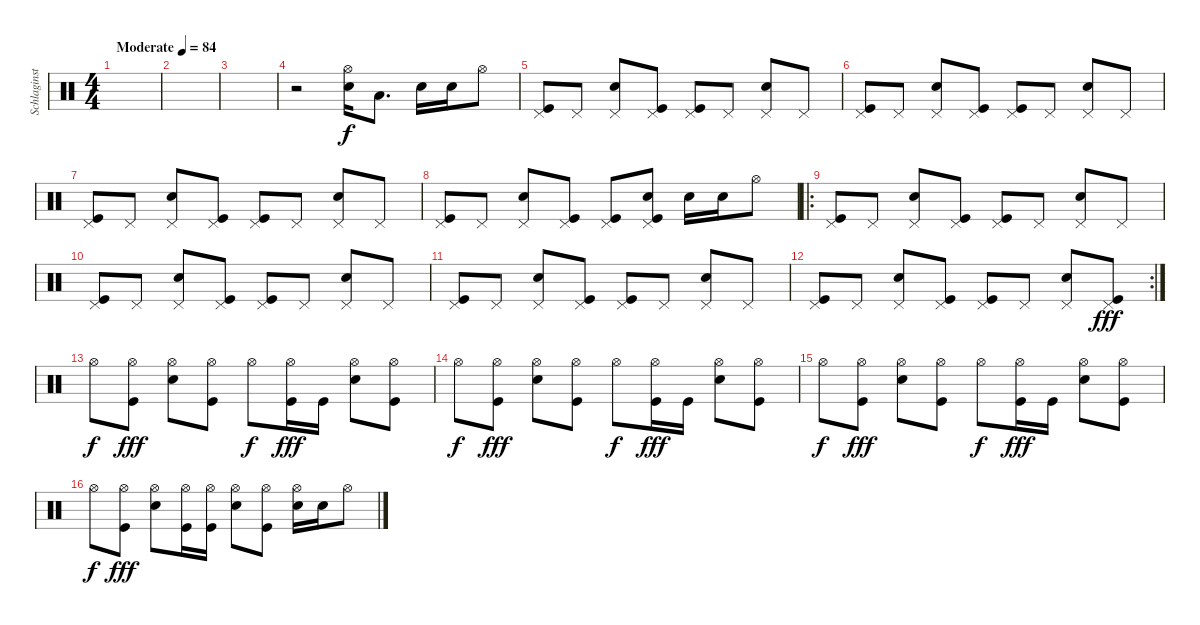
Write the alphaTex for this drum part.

\track ("Schlaginstrumente - Auswahl" "Schlaginst") {instrument percussion}
\staff {score}
\articulation defaults
\ts (4 4)
\tempo (84 "Moderate")
\clef neutral
\ks c
|
|
|
r.2 ("Hi-Hat (open)" "Electric Snare (hit)").16 "Low Floor Tom (hit)".8{d} "Electric Snare (hit)".16 "Electric Snare (hit)".16 "Hi-Hat (open)".8 |
("Pedal Hi-Hat (hit)" "Kick (hit)").8 "Pedal Hi-Hat (hit)".8 ("Pedal Hi-Hat (hit)" "Electric Snare (hit)").8 ("Pedal Hi-Hat (hit)" "Kick (hit)").8 ("Pedal Hi-Hat (hit)" "Kick (hit)").8 "Pedal Hi-Hat (hit)".8 ("Pedal Hi-Hat (hit)" "Electric Snare (hit)").8 "Pedal Hi-Hat (hit)".8 |
("Pedal Hi-Hat (hit)" "Kick (hit)").8 "Pedal Hi-Hat (hit)".8 ("Pedal Hi-Hat (hit)" "Electric Snare (hit)").8 ("Pedal Hi-Hat (hit)" "Kick (hit)").8 ("Pedal Hi-Hat (hit)" "Kick (hit)").8 "Pedal Hi-Hat (hit)".8 ("Pedal Hi-Hat (hit)" "Electric Snare (hit)").8 "Pedal Hi-Hat (hit)".8 |
("Pedal Hi-Hat (hit)" "Kick (hit)").8 "Pedal Hi-Hat (hit)".8 ("Pedal Hi-Hat (hit)" "Electric Snare (hit)").8 ("Pedal Hi-Hat (hit)" "Kick (hit)").8 ("Pedal Hi-Hat (hit)" "Kick (hit)").8 "Pedal Hi-Hat (hit)".8 ("Pedal Hi-Hat (hit)" "Electric Snare (hit)").8 "Pedal Hi-Hat (hit)".8 |
("Pedal Hi-Hat (hit)" "Kick (hit)").8 "Pedal Hi-Hat (hit)".8 ("Pedal Hi-Hat (hit)" "Electric Snare (hit)").8 ("Pedal Hi-Hat (hit)" "Kick (hit)").8 ("Pedal Hi-Hat (hit)" "Kick (hit)").8 ("Electric Snare (hit)" "Kick (hit)" "Pedal Hi-Hat (hit)").8 "Electric Snare (hit)".16 "Electric Snare (hit)".16 "Hi-Hat (open)".8 |
\ro
("Pedal Hi-Hat (hit)" "Kick (hit)").8 "Pedal Hi-Hat (hit)".8 ("Pedal Hi-Hat (hit)" "Electric Snare (hit)").8 ("Pedal Hi-Hat (hit)" "Kick (hit)").8 ("Pedal Hi-Hat (hit)" "Kick (hit)").8 "Pedal Hi-Hat (hit)".8 ("Pedal Hi-Hat (hit)" "Electric Snare (hit)").8 "Pedal Hi-Hat (hit)".8 |
("Pedal Hi-Hat (hit)" "Kick (hit)").8 "Pedal Hi-Hat (hit)".8 ("Pedal Hi-Hat (hit)" "Electric Snare (hit)").8 ("Pedal Hi-Hat (hit)" "Kick (hit)").8 ("Pedal Hi-Hat (hit)" "Kick (hit)").8 "Pedal Hi-Hat (hit)".8 ("Pedal Hi-Hat (hit)" "Electric Snare (hit)").8 "Pedal Hi-Hat (hit)".8 |
("Pedal Hi-Hat (hit)" "Kick (hit)").8 "Pedal Hi-Hat (hit)".8 ("Pedal Hi-Hat (hit)" "Electric Snare (hit)").8 ("Pedal Hi-Hat (hit)" "Kick (hit)").8 ("Pedal Hi-Hat (hit)" "Kick (hit)").8 "Pedal Hi-Hat (hit)".8 ("Pedal Hi-Hat (hit)" "Electric Snare (hit)").8 "Pedal Hi-Hat (hit)".8 |
\rc 2
("Pedal Hi-Hat (hit)" "Kick (hit)").8 "Pedal Hi-Hat (hit)".8 ("Pedal Hi-Hat (hit)" "Electric Snare (hit)").8 ("Pedal Hi-Hat (hit)" "Kick (hit)").8 ("Pedal Hi-Hat (hit)" "Kick (hit)").8 "Pedal Hi-Hat (hit)".8 ("Pedal Hi-Hat (hit)" "Electric Snare (hit)").8 ("Pedal Hi-Hat (hit)" "Kick (hit)").8{dy fff} |
"Hi-Hat (open)".8{dy f} ("Hi-Hat (open)" "Kick (hit)").8{dy fff} ("Hi-Hat (open)" "Electric Snare (hit)").8 ("Hi-Hat (open)" "Kick (hit)").8 "Hi-Hat (open)".8{dy f} ("Hi-Hat (open)" "Kick (hit)").16{dy fff} "Kick (hit)".16 ("Hi-Hat (open)" "Electric Snare (hit)").8 ("Hi-Hat (open)" "Kick (hit)").8 |
"Hi-Hat (open)".8{dy f} ("Hi-Hat (open)" "Kick (hit)").8{dy fff} ("Hi-Hat (open)" "Electric Snare (hit)").8 ("Hi-Hat (open)" "Kick (hit)").8 "Hi-Hat (open)".8{dy f} ("Hi-Hat (open)" "Kick (hit)").16{dy fff} "Kick (hit)".16 ("Hi-Hat (open)" "Electric Snare (hit)").8 ("Hi-Hat (open)" "Kick (hit)").8 |
"Hi-Hat (open)".8{dy f} ("Hi-Hat (open)" "Kick (hit)").8{dy fff} ("Hi-Hat (open)" "Electric Snare (hit)").8 ("Hi-Hat (open)" "Kick (hit)").8 "Hi-Hat (open)".8{dy f} ("Hi-Hat (open)" "Kick (hit)").16{dy fff} "Kick (hit)".16 ("Hi-Hat (open)" "Electric Snare (hit)").8 ("Hi-Hat (open)" "Kick (hit)").8 |
"Hi-Hat (open)".8{dy f} ("Hi-Hat (open)" "Kick (hit)").8{dy fff} ("Hi-Hat (open)" "Electric Snare (hit)").8 ("Hi-Hat (open)" "Kick (hit)").16 ("Hi-Hat (open)" "Kick (hit)").16 ("Hi-Hat (open)" "Electric Snare (hit)").8 ("Hi-Hat (open)" "Kick (hit)").8 ("Hi-Hat (open)" "Electric Snare (hit)").16 "Electric Snare (hit)".16 "Hi-Hat (open)".8
